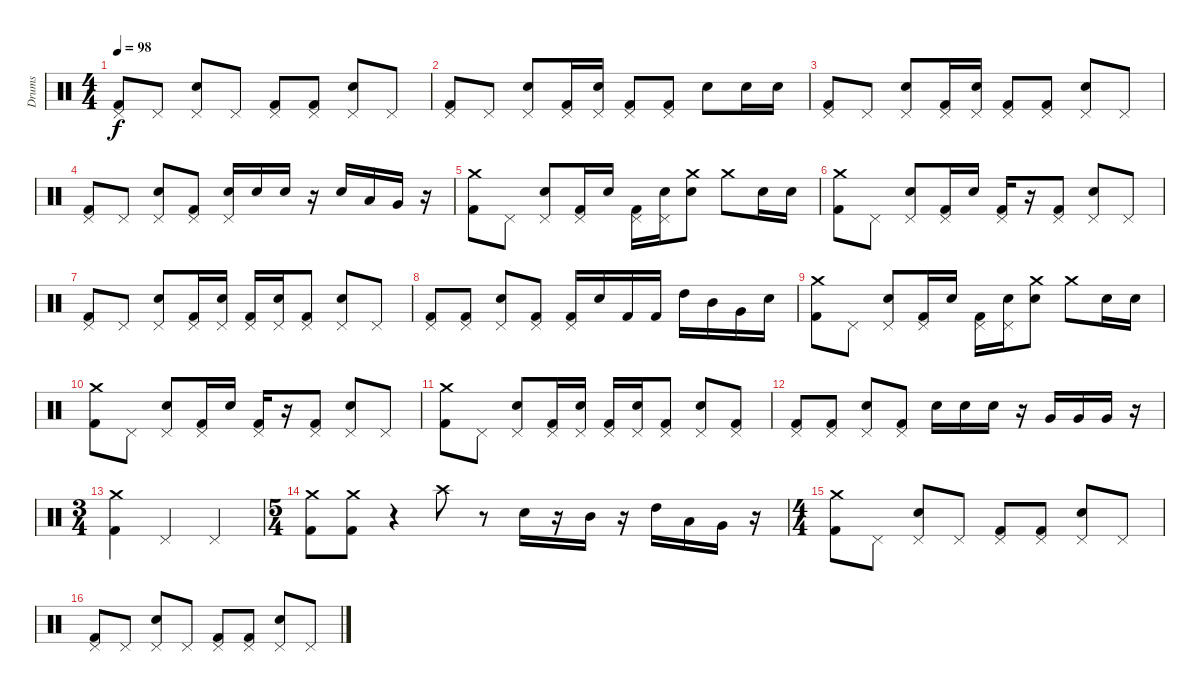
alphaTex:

\track ("Drums" "Drums") {instrument percussion}
\staff {score}
\articulation defaults
\ts (4 4)
\tempo 98
\clef neutral
\ks c
("Pedal Hi-Hat (hit)" "Kick (hit) 2").8{dy f} "Pedal Hi-Hat (hit)".8 ("Pedal Hi-Hat (hit)" "Snare (hit) 2").8 "Pedal Hi-Hat (hit)".8 ("Pedal Hi-Hat (hit)" "Kick (hit) 2").8 ("Pedal Hi-Hat (hit)" "Kick (hit) 2").8 ("Pedal Hi-Hat (hit)" "Snare (hit) 2").8 "Pedal Hi-Hat (hit)".8 |
("Pedal Hi-Hat (hit)" "Kick (hit) 2").8 "Pedal Hi-Hat (hit)".8 ("Pedal Hi-Hat (hit)" "Snare (hit) 2").8 ("Pedal Hi-Hat (hit)" "Kick (hit) 2").16 ("Pedal Hi-Hat (hit)" "Snare (hit) 2").16 ("Pedal Hi-Hat (hit)" "Kick (hit) 2").8 ("Pedal Hi-Hat (hit)" "Kick (hit) 2").8 "Snare (hit) 2".8 "Snare (hit) 2".16 "Snare (hit) 2".16 |
("Pedal Hi-Hat (hit)" "Kick (hit) 2").8 "Pedal Hi-Hat (hit)".8 ("Pedal Hi-Hat (hit)" "Snare (hit) 2").8 ("Pedal Hi-Hat (hit)" "Kick (hit) 2").16 ("Pedal Hi-Hat (hit)" "Snare (hit) 2").16 ("Pedal Hi-Hat (hit)" "Kick (hit) 2").8 ("Pedal Hi-Hat (hit)" "Kick (hit) 2").8 ("Pedal Hi-Hat (hit)" "Snare (hit) 2").8 "Pedal Hi-Hat (hit)".8 |
("Pedal Hi-Hat (hit)" "Kick (hit) 2").8 "Pedal Hi-Hat (hit)".8 ("Pedal Hi-Hat (hit)" "Snare (hit) 2").8 ("Pedal Hi-Hat (hit)" "Kick (hit) 2").8 ("Pedal Hi-Hat (hit)" "Snare (hit) 2").16 "Snare (hit) 2".16 "Snare (hit) 2".16 r.16 "Snare (hit) 2".16 "Low Tom (hit)".16 "Very Low Tom (hit)".16 r.16 |
("Crash medium (hit)" "Kick (hit) 2").8 "Pedal Hi-Hat (hit)".8 ("Pedal Hi-Hat (hit)" "Snare (hit) 2").8 ("Pedal Hi-Hat (hit)" "Kick (hit) 2").16 "Snare (hit) 2".16 ("Pedal Hi-Hat (hit)" "Kick (hit) 2").16 ("Pedal Hi-Hat (hit)" "Snare (hit) 2").16 ("Crash medium (hit)" "Snare (hit) 2").8 "Crash medium (hit)".8 "Snare (hit) 2".16 "Snare (hit) 2".16 |
("Crash medium (hit)" "Kick (hit) 2").8 "Pedal Hi-Hat (hit)".8 ("Pedal Hi-Hat (hit)" "Snare (hit) 2").8 ("Pedal Hi-Hat (hit)" "Kick (hit) 2").16 "Snare (hit) 2".16 ("Pedal Hi-Hat (hit)" "Kick (hit) 2").16 r.16 ("Pedal Hi-Hat (hit)" "Kick (hit) 2").8 ("Pedal Hi-Hat (hit)" "Snare (hit) 2").8 "Pedal Hi-Hat (hit)".8 |
("Pedal Hi-Hat (hit)" "Kick (hit) 2").8 "Pedal Hi-Hat (hit)".8 ("Pedal Hi-Hat (hit)" "Snare (hit) 2").8 ("Pedal Hi-Hat (hit)" "Kick (hit) 2").16 ("Pedal Hi-Hat (hit)" "Snare (hit) 2").16 ("Pedal Hi-Hat (hit)" "Kick (hit) 2").16 ("Pedal Hi-Hat (hit)" "Snare (hit) 2").16 ("Pedal Hi-Hat (hit)" "Kick (hit) 2").8 ("Pedal Hi-Hat (hit)" "Snare (hit) 2").8 "Pedal Hi-Hat (hit)".8 |
("Pedal Hi-Hat (hit)" "Kick (hit) 2").8 ("Pedal Hi-Hat (hit)" "Kick (hit) 2").8 ("Pedal Hi-Hat (hit)" "Snare (hit) 2").8 ("Pedal Hi-Hat (hit)" "Kick (hit) 2").8 ("Pedal Hi-Hat (hit)" "Kick (hit) 2").16 "Snare (hit) 2".16 "Kick (hit) 2".16 "Kick (hit) 2".16 "High Tom (hit)".16 "Mid Tom (hit)".16 "Very Low Tom (hit)".16 "Snare (hit) 2".16 |
("Crash medium (hit)" "Kick (hit) 2").8 "Pedal Hi-Hat (hit)".8 ("Pedal Hi-Hat (hit)" "Snare (hit) 2").8 ("Pedal Hi-Hat (hit)" "Kick (hit) 2").16 "Snare (hit) 2".16 ("Pedal Hi-Hat (hit)" "Kick (hit) 2").16 ("Pedal Hi-Hat (hit)" "Snare (hit) 2").16 ("Crash medium (hit)" "Snare (hit) 2").8 "Crash medium (hit)".8 "Snare (hit) 2".16 "Snare (hit) 2".16 |
("Crash medium (hit)" "Kick (hit) 2").8 "Pedal Hi-Hat (hit)".8 ("Pedal Hi-Hat (hit)" "Snare (hit) 2").8 ("Pedal Hi-Hat (hit)" "Kick (hit) 2").16 "Snare (hit) 2".16 ("Pedal Hi-Hat (hit)" "Kick (hit) 2").16 r.16 ("Pedal Hi-Hat (hit)" "Kick (hit) 2").8 ("Pedal Hi-Hat (hit)" "Snare (hit) 2").8 "Pedal Hi-Hat (hit)".8 |
("Crash medium (hit)" "Kick (hit) 2").8 "Pedal Hi-Hat (hit)".8 ("Pedal Hi-Hat (hit)" "Snare (hit) 2").8 ("Pedal Hi-Hat (hit)" "Kick (hit) 2").16 ("Pedal Hi-Hat (hit)" "Snare (hit) 2").16 ("Pedal Hi-Hat (hit)" "Kick (hit) 2").16 ("Pedal Hi-Hat (hit)" "Snare (hit) 2").16 ("Pedal Hi-Hat (hit)" "Kick (hit) 2").8 ("Pedal Hi-Hat (hit)" "Snare (hit) 2").8 ("Pedal Hi-Hat (hit)" "Kick (hit) 2").8 |
("Pedal Hi-Hat (hit)" "Kick (hit) 2").8 ("Pedal Hi-Hat (hit)" "Kick (hit) 2").8 ("Pedal Hi-Hat (hit)" "Snare (hit) 2").8 ("Pedal Hi-Hat (hit)" "Kick (hit) 2").8 "Snare (hit) 2".16 "Snare (hit) 2".16 "Snare (hit) 2".16 r.16 "Very Low Tom (hit)".16 "Very Low Tom (hit)".16 "Very Low Tom (hit)".16 r.16 |
\ts (3 4)
("Crash medium (hit)" "Kick (hit) 2").4 "Pedal Hi-Hat (hit)".4 "Pedal Hi-Hat (hit)".4 |
\ts (5 4)
("Crash medium (hit)" "Kick (hit) 2").8 ("Crash medium (hit)" "Kick (hit) 2").8 r.4 "Crash high (hit)".8 r.8 "Snare (hit) 2".16 r.16 "Mid Tom (hit)".16 r.16 "High Tom (hit)".16 "Low Tom (hit)".16 "Very Low Tom (hit)".16 r.16 |
\ts (4 4)
("Crash medium (hit)" "Kick (hit) 2").8 "Pedal Hi-Hat (hit)".8 ("Pedal Hi-Hat (hit)" "Snare (hit) 2").8 "Pedal Hi-Hat (hit)".8 ("Pedal Hi-Hat (hit)" "Kick (hit) 2").8 ("Pedal Hi-Hat (hit)" "Kick (hit) 2").8 ("Pedal Hi-Hat (hit)" "Snare (hit) 2").8 "Pedal Hi-Hat (hit)".8 |
("Pedal Hi-Hat (hit)" "Kick (hit) 2").8 "Pedal Hi-Hat (hit)".8 ("Pedal Hi-Hat (hit)" "Snare (hit) 2").8 "Pedal Hi-Hat (hit)".8 ("Pedal Hi-Hat (hit)" "Kick (hit) 2").8 ("Pedal Hi-Hat (hit)" "Kick (hit) 2").8 ("Pedal Hi-Hat (hit)" "Snare (hit) 2").8 "Pedal Hi-Hat (hit)".8
